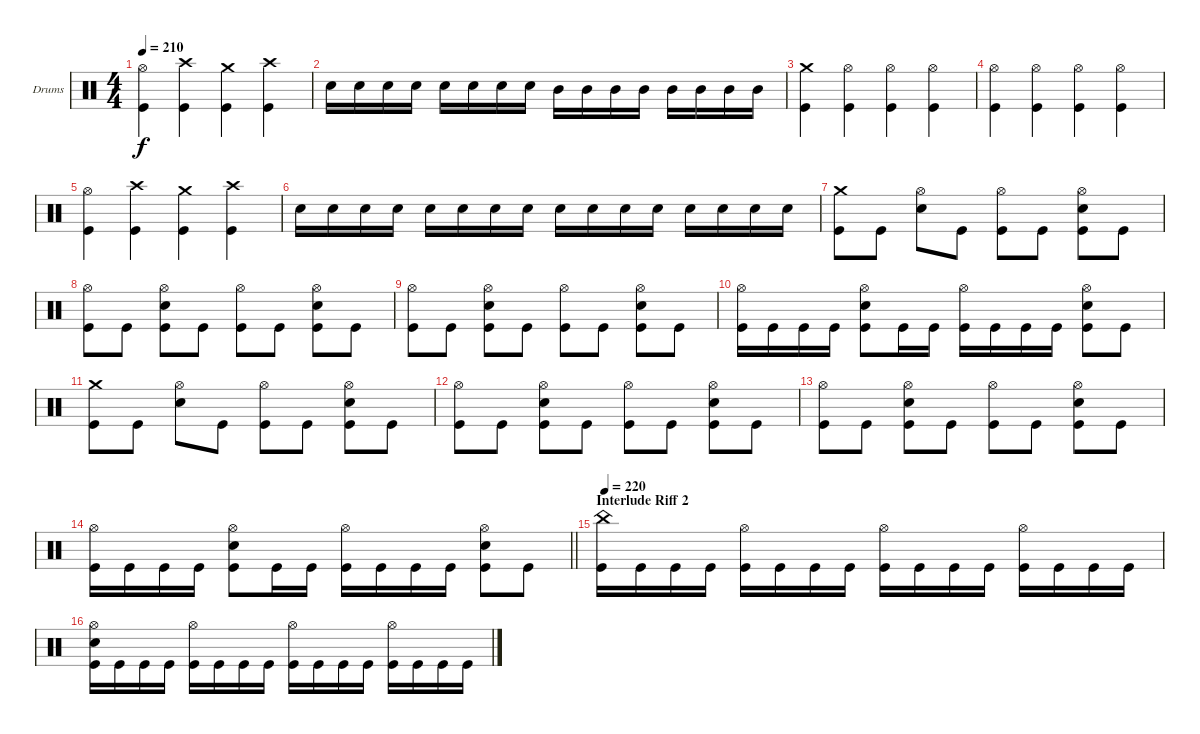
\bracketExtendMode groupsimilarinstruments
\firstSystemTrackNameOrientation horizontal
\otherSystemsTrackNameOrientation horizontal
\track ("Drumkit" "Drums") {instrument percussion}
\staff {score}
\articulation defaults
\ts (4 4)
\tempo 210
\clef neutral
\ks c
("Hi-Hat (open)" "Kick (hit)").4{dy f} ("Crash high (hit)" "Kick (hit)").4 ("Crash medium (hit)" "Kick (hit)").4 ("Crash high (hit)" "Kick (hit)").4 |
"Snare (hit) 2".16 "Snare (hit) 2".16 "Snare (hit) 2".16 "Snare (hit) 2".16 "Snare (hit) 2".16 "Snare (hit) 2".16 "Snare (hit) 2".16 "Snare (hit) 2".16 "Mid Tom (hit)".16 "Mid Tom (hit)".16 "Mid Tom (hit)".16 "Mid Tom (hit)".16 "Mid Tom (hit)".16 "Mid Tom (hit)".16 "Mid Tom (hit)".16 "Mid Tom (hit)".16 |
("Crash medium (hit)" "Kick (hit)").4 ("Hi-Hat (open)" "Kick (hit)").4 ("Hi-Hat (open)" "Kick (hit)").4 ("Hi-Hat (open)" "Kick (hit)").4 |
("Hi-Hat (open)" "Kick (hit)").4 ("Hi-Hat (open)" "Kick (hit)").4 ("Hi-Hat (open)" "Kick (hit)").4 ("Hi-Hat (open)" "Kick (hit)").4 |
("Hi-Hat (open)" "Kick (hit)").4 ("Crash high (hit)" "Kick (hit)").4 ("Crash medium (hit)" "Kick (hit)").4 ("Crash high (hit)" "Kick (hit)").4 |
"Snare (hit) 2".16 "Snare (hit) 2".16 "Snare (hit) 2".16 "Snare (hit) 2".16 "Snare (hit) 2".16 "Snare (hit) 2".16 "Snare (hit) 2".16 "Snare (hit) 2".16 "Snare (hit) 2".16 "Snare (hit) 2".16 "Snare (hit) 2".16 "Snare (hit) 2".16 "Snare (hit) 2".16 "Snare (hit) 2".16 "Snare (hit) 2".16 "Snare (hit) 2".16 |
("Crash medium (hit)" "Kick (hit)").8 "Kick (hit)".8 ("Hi-Hat (open)" "Snare (hit) 2").8 "Kick (hit)".8 ("Hi-Hat (open)" "Kick (hit)").8 "Kick (hit)".8 ("Hi-Hat (open)" "Snare (hit) 2" "Kick (hit)").8 "Kick (hit)".8 |
("Hi-Hat (open)" "Kick (hit)").8 "Kick (hit)".8 ("Hi-Hat (open)" "Snare (hit) 2" "Kick (hit)").8 "Kick (hit)".8 ("Hi-Hat (open)" "Kick (hit)").8 "Kick (hit)".8 ("Hi-Hat (open)" "Snare (hit) 2" "Kick (hit)").8 "Kick (hit)".8 |
("Hi-Hat (open)" "Kick (hit)").8 "Kick (hit)".8 ("Hi-Hat (open)" "Snare (hit) 2" "Kick (hit)").8 "Kick (hit)".8 ("Hi-Hat (open)" "Kick (hit)").8 "Kick (hit)".8 ("Hi-Hat (open)" "Snare (hit) 2" "Kick (hit)").8 "Kick (hit)".8 |
("Hi-Hat (open)" "Kick (hit)").16 "Kick (hit)".16 "Kick (hit)".16 "Kick (hit)".16 ("Hi-Hat (open)" "Snare (hit) 2" "Kick (hit)").8 "Kick (hit)".16 "Kick (hit)".16 ("Hi-Hat (open)" "Kick (hit)").16 "Kick (hit)".16 "Kick (hit)".16 "Kick (hit)".16 ("Hi-Hat (open)" "Snare (hit) 2" "Kick (hit)").8 "Kick (hit)".8 |
("Crash medium (hit)" "Kick (hit)").8 "Kick (hit)".8 ("Hi-Hat (open)" "Snare (hit) 2").8 "Kick (hit)".8 ("Hi-Hat (open)" "Kick (hit)").8 "Kick (hit)".8 ("Hi-Hat (open)" "Snare (hit) 2" "Kick (hit)").8 "Kick (hit)".8 |
("Hi-Hat (open)" "Kick (hit)").8 "Kick (hit)".8 ("Hi-Hat (open)" "Snare (hit) 2" "Kick (hit)").8 "Kick (hit)".8 ("Hi-Hat (open)" "Kick (hit)").8 "Kick (hit)".8 ("Hi-Hat (open)" "Snare (hit) 2" "Kick (hit)").8 "Kick (hit)".8 |
("Hi-Hat (open)" "Kick (hit)").8 "Kick (hit)".8 ("Hi-Hat (open)" "Snare (hit) 2" "Kick (hit)").8 "Kick (hit)".8 ("Hi-Hat (open)" "Kick (hit)").8 "Kick (hit)".8 ("Hi-Hat (open)" "Snare (hit) 2" "Kick (hit)").8 "Kick (hit)".8 |
\barLineRight lightlight
("Hi-Hat (open)" "Kick (hit)").16 "Kick (hit)".16 "Kick (hit)".16 "Kick (hit)".16 ("Hi-Hat (open)" "Snare (hit) 2" "Kick (hit)").8 "Kick (hit)".16 "Kick (hit)".16 ("Hi-Hat (open)" "Kick (hit)").16 "Kick (hit)".16 "Kick (hit)".16 "Kick (hit)".16 ("Hi-Hat (open)" "Snare (hit) 2" "Kick (hit)").8 "Kick (hit)".8 |
\section ("" "Interlude Riff 2")
\tempo 220
("China (hit)" "Kick (hit)").16 "Kick (hit)".16 "Kick (hit)".16 "Kick (hit)".16 ("Hi-Hat (open)" "Kick (hit)").16 "Kick (hit)".16 "Kick (hit)".16 "Kick (hit)".16 ("Hi-Hat (open)" "Kick (hit)").16 "Kick (hit)".16 "Kick (hit)".16 "Kick (hit)".16 ("Hi-Hat (open)" "Kick (hit)").16 "Kick (hit)".16 "Kick (hit)".16 "Kick (hit)".16 |
("Hi-Hat (open)" "Snare (hit) 2" "Kick (hit)").16 "Kick (hit)".16 "Kick (hit)".16 "Kick (hit)".16 ("Hi-Hat (open)" "Kick (hit)").16 "Kick (hit)".16 "Kick (hit)".16 "Kick (hit)".16 ("Hi-Hat (open)" "Kick (hit)").16 "Kick (hit)".16 "Kick (hit)".16 "Kick (hit)".16 ("Hi-Hat (open)" "Kick (hit)").16 "Kick (hit)".16 "Kick (hit)".16 "Kick (hit)".16
